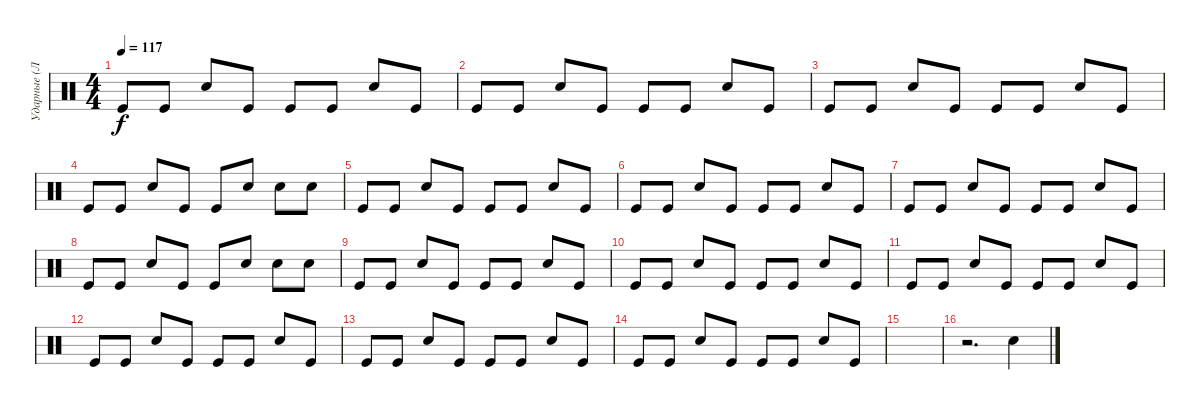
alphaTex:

\track ("Ударные (Летов)" "Ударные (Л") {instrument percussion}
\staff {score}
\articulation defaults
\ts (4 4)
\tempo 117
\clef neutral
\ks c "Kick (hit)".8{dy f} "Kick (hit)".8 "Snare (hit) 2".8 "Kick (hit)".8 "Kick (hit)".8 "Kick (hit)".8 "Snare (hit) 2".8 "Kick (hit)".8
|
"Kick (hit)".8 "Kick (hit)".8 "Snare (hit) 2".8 "Kick (hit)".8 "Kick (hit)".8 "Kick (hit)".8 "Snare (hit) 2".8 "Kick (hit)".8 |
"Kick (hit)".8 "Kick (hit)".8 "Snare (hit) 2".8 "Kick (hit)".8 "Kick (hit)".8 "Kick (hit)".8 "Snare (hit) 2".8 "Kick (hit)".8 |
"Kick (hit)".8 "Kick (hit)".8 "Snare (hit) 2".8 "Kick (hit)".8 "Kick (hit)".8 "Snare (hit) 2".8 "Snare (hit) 2".8 "Snare (hit) 2".8 |
"Kick (hit)".8 "Kick (hit)".8 "Snare (hit) 2".8 "Kick (hit)".8 "Kick (hit)".8 "Kick (hit)".8 "Snare (hit) 2".8 "Kick (hit)".8 |
"Kick (hit)".8 "Kick (hit)".8 "Snare (hit) 2".8 "Kick (hit)".8 "Kick (hit)".8 "Kick (hit)".8 "Snare (hit) 2".8 "Kick (hit)".8 |
"Kick (hit)".8 "Kick (hit)".8 "Snare (hit) 2".8 "Kick (hit)".8 "Kick (hit)".8 "Kick (hit)".8 "Snare (hit) 2".8 "Kick (hit)".8 |
"Kick (hit)".8 "Kick (hit)".8 "Snare (hit) 2".8 "Kick (hit)".8 "Kick (hit)".8 "Snare (hit) 2".8 "Snare (hit) 2".8 "Snare (hit) 2".8 |
"Kick (hit)".8 "Kick (hit)".8 "Snare (hit) 2".8 "Kick (hit)".8 "Kick (hit)".8 "Kick (hit)".8 "Snare (hit) 2".8 "Kick (hit)".8 |
"Kick (hit)".8 "Kick (hit)".8 "Snare (hit) 2".8 "Kick (hit)".8 "Kick (hit)".8 "Kick (hit)".8 "Snare (hit) 2".8 "Kick (hit)".8 |
"Kick (hit)".8 "Kick (hit)".8 "Snare (hit) 2".8 "Kick (hit)".8 "Kick (hit)".8 "Kick (hit)".8 "Snare (hit) 2".8 "Kick (hit)".8 |
"Kick (hit)".8 "Kick (hit)".8 "Snare (hit) 2".8 "Kick (hit)".8 "Kick (hit)".8 "Kick (hit)".8 "Snare (hit) 2".8 "Kick (hit)".8 |
"Kick (hit)".8 "Kick (hit)".8 "Snare (hit) 2".8 "Kick (hit)".8 "Kick (hit)".8 "Kick (hit)".8 "Snare (hit) 2".8 "Kick (hit)".8 |
"Kick (hit)".8 "Kick (hit)".8 "Snare (hit) 2".8 "Kick (hit)".8 "Kick (hit)".8 "Kick (hit)".8 "Snare (hit) 2".8 "Kick (hit)".8 |
|
r.2{d} "Snare (hit) 2".4
